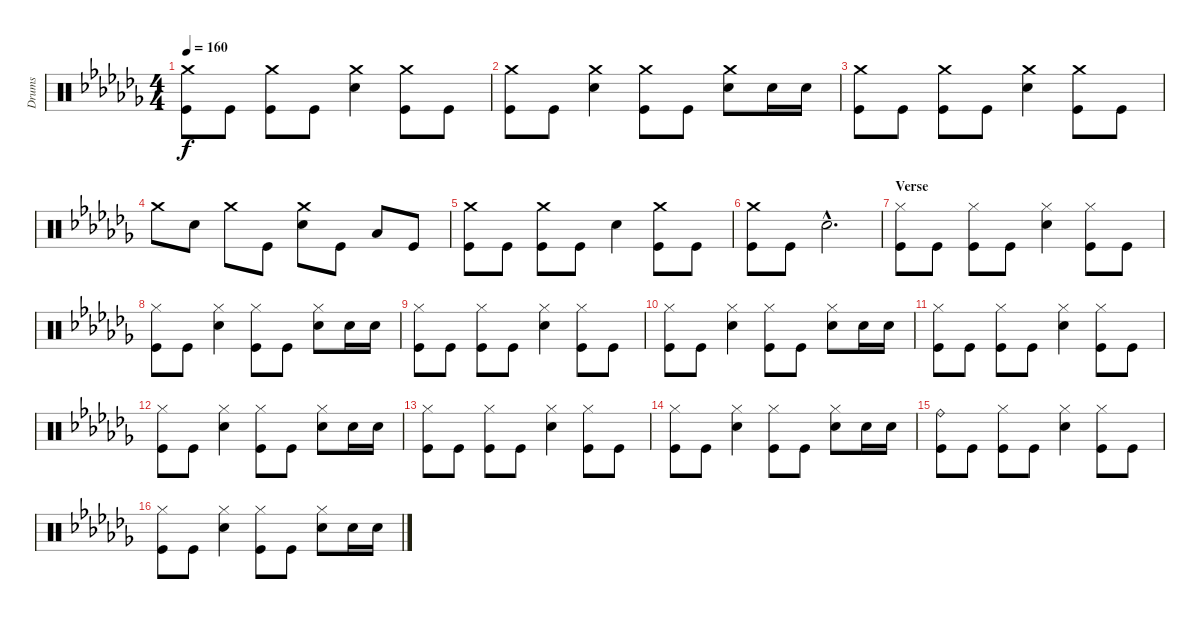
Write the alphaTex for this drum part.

\track ("Drums" "Drums") {instrument percussion}
\staff {score}
\articulation defaults
\ts (4 4)
\tempo 160
\clef neutral
\ks cb
("Crash medium (hit)" "Kick (hit)").8{dy f} "Kick (hit)".8 ("Crash medium (hit)" "Kick (hit)").8 "Kick (hit)".8 ("Crash medium (hit)" "Electric Snare (hit)").4 ("Crash medium (hit)" "Kick (hit)").8 "Kick (hit)".8 |
("Crash medium (hit)" "Kick (hit)").8 "Kick (hit)".8 ("Crash medium (hit)" "Electric Snare (hit)").4 ("Crash medium (hit)" "Kick (hit)").8 "Kick (hit)".8 ("Crash medium (hit)" "Electric Snare (hit)").8 "Electric Snare (hit)".16 "Electric Snare (hit)".16 |
("Crash medium (hit)" "Kick (hit)").8 "Kick (hit)".8 ("Crash medium (hit)" "Kick (hit)").8 "Kick (hit)".8 ("Crash medium (hit)" "Electric Snare (hit)").4 ("Crash medium (hit)" "Kick (hit)").8 "Kick (hit)".8 |
"Crash medium (hit)".8 "Electric Snare (hit)".8 "Crash medium (hit)".8 "Kick (hit)".8 ("Crash medium (hit)" "Electric Snare (hit)").8 "Kick (hit)".8 "Low Floor Tom (hit)".8 "Kick (hit)".8 |
("Crash medium (hit)" "Kick (hit)").8 "Kick (hit)".8 ("Crash medium (hit)" "Kick (hit)").8 "Kick (hit)".8 "Electric Snare (hit)".4 ("Crash medium (hit)" "Kick (hit)").8 "Kick (hit)".8 |
("Crash medium (hit)" "Kick (hit)").8 "Kick (hit)".8 "Electric Snare (hit)"{hac}.2{d} |
\section ("" "Verse")
("Hi-Hat (closed)" "Kick (hit)").8 "Kick (hit)".8 ("Hi-Hat (closed)" "Kick (hit)").8 "Kick (hit)".8 ("Hi-Hat (closed)" "Electric Snare (hit)").4 ("Hi-Hat (closed)" "Kick (hit)").8 "Kick (hit)".8 |
("Hi-Hat (closed)" "Kick (hit)").8 "Kick (hit)".8 ("Hi-Hat (closed)" "Electric Snare (hit)").4 ("Hi-Hat (closed)" "Kick (hit)").8 "Kick (hit)".8 ("Hi-Hat (closed)" "Electric Snare (hit)").8 "Electric Snare (hit)".16 "Electric Snare (hit)".16 |
("Hi-Hat (closed)" "Kick (hit)").8 "Kick (hit)".8 ("Hi-Hat (closed)" "Kick (hit)").8 "Kick (hit)".8 ("Hi-Hat (closed)" "Electric Snare (hit)").4 ("Hi-Hat (closed)" "Kick (hit)").8 "Kick (hit)".8 |
("Hi-Hat (closed)" "Kick (hit)").8 "Kick (hit)".8 ("Hi-Hat (closed)" "Electric Snare (hit)").4 ("Hi-Hat (closed)" "Kick (hit)").8 "Kick (hit)".8 ("Hi-Hat (closed)" "Electric Snare (hit)").8 "Electric Snare (hit)".16 "Electric Snare (hit)".16 |
("Hi-Hat (closed)" "Kick (hit)").8 "Kick (hit)".8 ("Hi-Hat (closed)" "Kick (hit)").8 "Kick (hit)".8 ("Hi-Hat (closed)" "Electric Snare (hit)").4 ("Hi-Hat (closed)" "Kick (hit)").8 "Kick (hit)".8 |
("Hi-Hat (closed)" "Kick (hit)").8 "Kick (hit)".8 ("Hi-Hat (closed)" "Electric Snare (hit)").4 ("Hi-Hat (closed)" "Kick (hit)").8 "Kick (hit)".8 ("Hi-Hat (closed)" "Electric Snare (hit)").8 "Electric Snare (hit)".16 "Electric Snare (hit)".16 |
("Hi-Hat (closed)" "Kick (hit)").8 "Kick (hit)".8 ("Hi-Hat (closed)" "Kick (hit)").8 "Kick (hit)".8 ("Hi-Hat (closed)" "Electric Snare (hit)").4 ("Hi-Hat (closed)" "Kick (hit)").8 "Kick (hit)".8 |
("Hi-Hat (closed)" "Kick (hit)").8 "Kick (hit)".8 ("Hi-Hat (closed)" "Electric Snare (hit)").4 ("Hi-Hat (closed)" "Kick (hit)").8 "Kick (hit)".8 ("Hi-Hat (closed)" "Electric Snare (hit)").8 "Electric Snare (hit)".16 "Electric Snare (hit)".16 |
("Ride (bell)" "Kick (hit)").8 "Kick (hit)".8 ("Hi-Hat (closed)" "Kick (hit)").8 "Kick (hit)".8 ("Hi-Hat (closed)" "Electric Snare (hit)").4 ("Hi-Hat (closed)" "Kick (hit)").8 "Kick (hit)".8 |
("Hi-Hat (closed)" "Kick (hit)").8 "Kick (hit)".8 ("Hi-Hat (closed)" "Electric Snare (hit)").4 ("Hi-Hat (closed)" "Kick (hit)").8 "Kick (hit)".8 ("Hi-Hat (closed)" "Electric Snare (hit)").8 "Electric Snare (hit)".16 "Electric Snare (hit)".16
